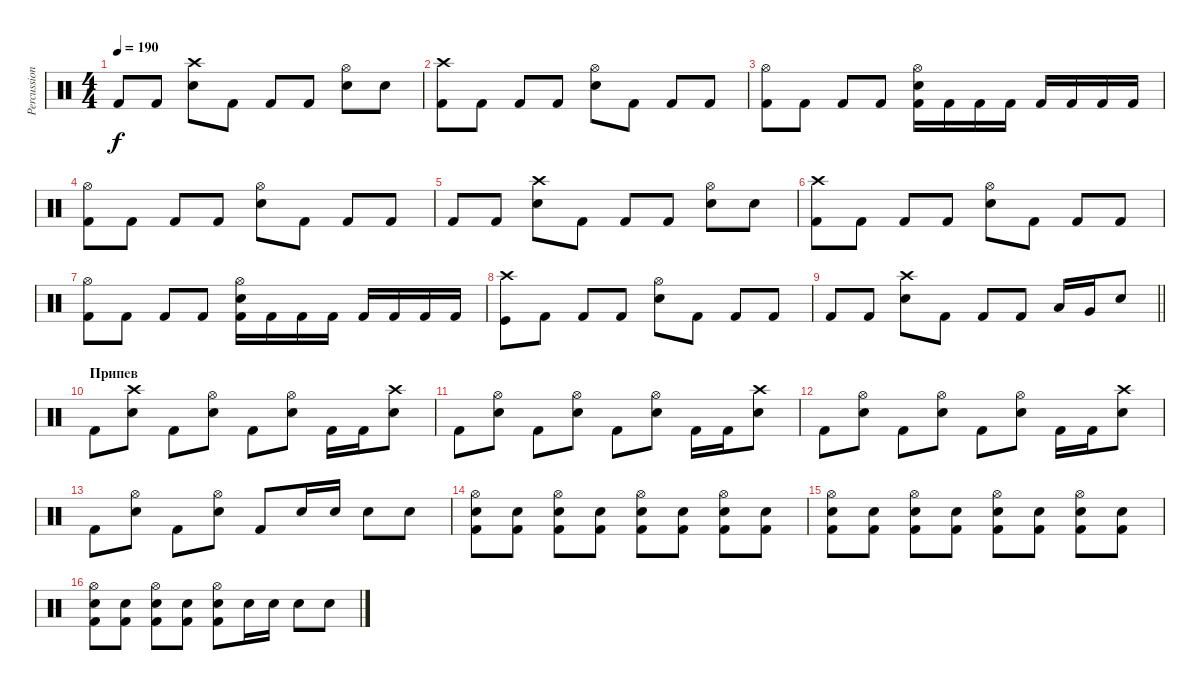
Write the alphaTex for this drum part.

\track ("Percussions" "Percussion") {instrument percussion}
\staff {score}
\articulation defaults
\ts (4 4)
\tempo 190
\clef neutral
\ks c "Kick (hit) 2".8{dy f} "Kick (hit) 2".8
("Electric Snare (hit)" "Crash high (hit)").8 "Kick (hit) 2".8 "Kick (hit) 2".8 "Kick (hit) 2".8 ("Electric Snare (hit)" "Hi-Hat (open)").8 "Electric Snare (hit)".8 |
("Kick (hit) 2" "Crash high (hit)").8 "Kick (hit) 2".8 "Kick (hit) 2".8 "Kick (hit) 2".8 ("Electric Snare (hit)" "Hi-Hat (open)").8 "Kick (hit) 2".8 "Kick (hit) 2".8 "Kick (hit) 2".8 |
("Kick (hit) 2" "Hi-Hat (open)").8 "Kick (hit) 2".8 "Kick (hit) 2".8 "Kick (hit) 2".8 ("Kick (hit) 2" "Electric Snare (hit)" "Hi-Hat (open)").16 "Kick (hit) 2".16 "Kick (hit) 2".16 "Kick (hit) 2".16 "Kick (hit) 2".16 "Kick (hit) 2".16 "Kick (hit) 2".16 "Kick (hit) 2".16 |
("Kick (hit) 2" "Hi-Hat (open)").8 "Kick (hit) 2".8 "Kick (hit) 2".8 "Kick (hit) 2".8 ("Hi-Hat (open)" "Electric Snare (hit)").8 "Kick (hit) 2".8 "Kick (hit) 2".8 "Kick (hit) 2".8 |
"Kick (hit) 2".8 "Kick (hit) 2".8 ("Electric Snare (hit)" "Crash high (hit)").8 "Kick (hit) 2".8 "Kick (hit) 2".8 "Kick (hit) 2".8 ("Electric Snare (hit)" "Hi-Hat (open)").8 "Electric Snare (hit)".8 |
("Kick (hit) 2" "Crash high (hit)").8 "Kick (hit) 2".8 "Kick (hit) 2".8 "Kick (hit) 2".8 ("Electric Snare (hit)" "Hi-Hat (open)").8 "Kick (hit) 2".8 "Kick (hit) 2".8 "Kick (hit) 2".8 |
("Kick (hit) 2" "Hi-Hat (open)").8 "Kick (hit) 2".8 "Kick (hit) 2".8 "Kick (hit) 2".8 ("Kick (hit) 2" "Electric Snare (hit)" "Hi-Hat (open)").16 "Kick (hit) 2".16 "Kick (hit) 2".16 "Kick (hit) 2".16 "Kick (hit) 2".16 "Kick (hit) 2".16 "Kick (hit) 2".16 "Kick (hit) 2".16 |
("Crash high (hit)" "Kick (hit)").8 "Kick (hit) 2".8 "Kick (hit) 2".8 "Kick (hit) 2".8 ("Hi-Hat (open)" "Electric Snare (hit)").8 "Kick (hit) 2".8 "Kick (hit) 2".8 "Kick (hit) 2".8 |
\barLineRight lightlight "Kick (hit) 2".8 "Kick (hit) 2".8
("Electric Snare (hit)" "Crash high (hit)").8 "Kick (hit) 2".8 "Kick (hit) 2".8 "Kick (hit) 2".8 "Low Floor Tom (hit)".16 "Very Low Tom (hit)".16 "Electric Snare (hit)".8 |
\section ("" "Припев")
"Kick (hit) 2".8 ("Crash high (hit)" "Electric Snare (hit)").8 "Kick (hit) 2".8 ("Hi-Hat (open)" "Electric Snare (hit)").8 "Kick (hit) 2".8 ("Hi-Hat (open)" "Electric Snare (hit)").8 "Kick (hit) 2".16 "Kick (hit) 2".16 ("Crash high (hit)" "Electric Snare (hit)").8 |
"Kick (hit) 2".8 ("Hi-Hat (open)" "Electric Snare (hit)").8 "Kick (hit) 2".8 ("Hi-Hat (open)" "Electric Snare (hit)").8 "Kick (hit) 2".8 ("Electric Snare (hit)" "Hi-Hat (open)").8 "Kick (hit) 2".16 "Kick (hit) 2".16 ("Electric Snare (hit)" "Crash high (hit)").8 |
"Kick (hit) 2".8 ("Hi-Hat (open)" "Electric Snare (hit)").8 "Kick (hit) 2".8 ("Hi-Hat (open)" "Electric Snare (hit)").8 "Kick (hit) 2".8 ("Hi-Hat (open)" "Electric Snare (hit)").8 "Kick (hit) 2".16 "Kick (hit) 2".16 ("Crash high (hit)" "Electric Snare (hit)").8 |
"Kick (hit) 2".8 ("Hi-Hat (open)" "Electric Snare (hit)").8 "Kick (hit) 2".8 ("Hi-Hat (open)" "Electric Snare (hit)").8 "Kick (hit) 2".8 "Electric Snare (hit)".16 "Electric Snare (hit)".16 "Electric Snare (hit)".8 "Electric Snare (hit)".8 |
("Kick (hit) 2" "Electric Snare (hit)" "Hi-Hat (open)").8 ("Kick (hit) 2" "Electric Snare (hit)").8 ("Kick (hit) 2" "Electric Snare (hit)" "Hi-Hat (open)").8 ("Kick (hit) 2" "Electric Snare (hit)").8 ("Kick (hit) 2" "Electric Snare (hit)" "Hi-Hat (open)").8 ("Kick (hit) 2" "Electric Snare (hit)").8 ("Kick (hit) 2" "Electric Snare (hit)" "Hi-Hat (open)").8 ("Kick (hit) 2" "Electric Snare (hit)").8 |
("Kick (hit) 2" "Electric Snare (hit)" "Hi-Hat (open)").8 ("Kick (hit) 2" "Electric Snare (hit)").8 ("Kick (hit) 2" "Electric Snare (hit)" "Hi-Hat (open)").8 ("Kick (hit) 2" "Electric Snare (hit)").8 ("Kick (hit) 2" "Electric Snare (hit)" "Hi-Hat (open)").8 ("Kick (hit) 2" "Electric Snare (hit)").8 ("Kick (hit) 2" "Electric Snare (hit)" "Hi-Hat (open)").8 ("Kick (hit) 2" "Electric Snare (hit)").8 |
("Kick (hit) 2" "Electric Snare (hit)" "Hi-Hat (open)").8 ("Kick (hit) 2" "Electric Snare (hit)").8 ("Kick (hit) 2" "Electric Snare (hit)" "Hi-Hat (open)").8 ("Kick (hit) 2" "Electric Snare (hit)").8 ("Kick (hit) 2" "Electric Snare (hit)" "Hi-Hat (open)").8 "Electric Snare (hit)".16 "Electric Snare (hit)".16 "Electric Snare (hit)".8 "Electric Snare (hit)".8
